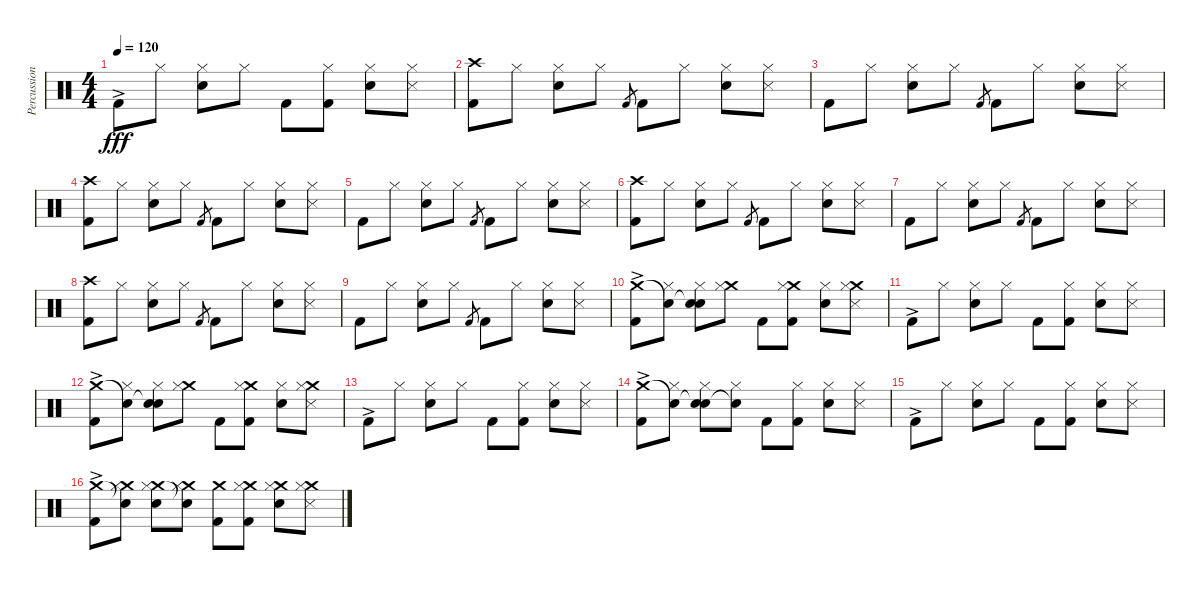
\track ("Percussion" "Percussion") {instrument percussion}
\staff {score}
\articulation defaults
\ts (4 4)
\tempo 120
\clef neutral
\ks c "Kick (hit) 2"{ac}.8{dy fff} "Hi-Hat (closed)".8
("Hi-Hat (closed)" "Snare (hit) 2").8 "Hi-Hat (closed)".8 "Kick (hit) 2".8 ("Hi-Hat (closed)" "Kick (hit) 2").8 ("Hi-Hat (closed)" "Snare (hit) 2").8 ("Hi-Hat (closed)" "Snare (side stick) 3").8 |
("Crash high (hit)" "Kick (hit) 2").8 "Hi-Hat (closed)".8 ("Hi-Hat (closed)" "Snare (hit) 2").8 "Hi-Hat (closed)".8 "Kick (hit) 2".8{gr} "Kick (hit) 2".8 "Hi-Hat (closed)".8 ("Hi-Hat (closed)" "Snare (hit) 2").8 ("Hi-Hat (closed)" "Snare (side stick) 3").8 |
"Kick (hit) 2".8 "Hi-Hat (closed)".8 ("Hi-Hat (closed)" "Snare (hit) 2").8 "Hi-Hat (closed)".8 "Kick (hit) 2".8{gr} "Kick (hit) 2".8 "Hi-Hat (closed)".8 ("Hi-Hat (closed)" "Snare (hit) 2").8 ("Hi-Hat (closed)" "Snare (side stick) 3").8 |
("Crash high (hit)" "Kick (hit) 2").8 "Hi-Hat (closed)".8 ("Hi-Hat (closed)" "Snare (hit) 2").8 "Hi-Hat (closed)".8 "Kick (hit) 2".8{gr} "Kick (hit) 2".8 "Hi-Hat (closed)".8 ("Hi-Hat (closed)" "Snare (hit) 2").8 ("Hi-Hat (closed)" "Snare (side stick) 3").8 |
"Kick (hit) 2".8 "Hi-Hat (closed)".8 ("Hi-Hat (closed)" "Snare (hit) 2").8 "Hi-Hat (closed)".8 "Kick (hit) 2".8{gr} "Kick (hit) 2".8 "Hi-Hat (closed)".8 ("Hi-Hat (closed)" "Snare (hit) 2").8 ("Hi-Hat (closed)" "Snare (side stick) 3").8 |
("Crash high (hit)" "Kick (hit) 2").8 "Hi-Hat (closed)".8 ("Hi-Hat (closed)" "Snare (hit) 2").8 "Hi-Hat (closed)".8 "Kick (hit) 2".8{gr} "Kick (hit) 2".8 "Hi-Hat (closed)".8 ("Hi-Hat (closed)" "Snare (hit) 2").8 ("Hi-Hat (closed)" "Snare (side stick) 3").8 |
"Kick (hit) 2".8 "Hi-Hat (closed)".8 ("Hi-Hat (closed)" "Snare (hit) 2").8 "Hi-Hat (closed)".8 "Kick (hit) 2".8{gr} "Kick (hit) 2".8 "Hi-Hat (closed)".8 ("Hi-Hat (closed)" "Snare (hit) 2").8 ("Hi-Hat (closed)" "Snare (side stick) 3").8 |
("Crash high (hit)" "Kick (hit) 2").8 "Hi-Hat (closed)".8 ("Hi-Hat (closed)" "Snare (hit) 2").8 "Hi-Hat (closed)".8 "Kick (hit) 2".8{gr} "Kick (hit) 2".8 "Hi-Hat (closed)".8 ("Hi-Hat (closed)" "Snare (hit) 2").8 ("Hi-Hat (closed)" "Snare (side stick) 3").8 |
"Kick (hit) 2".8 "Hi-Hat (closed)".8 ("Hi-Hat (closed)" "Snare (hit) 2").8 "Hi-Hat (closed)".8 "Kick (hit) 2".8{gr} "Kick (hit) 2".8 "Hi-Hat (closed)".8 ("Hi-Hat (closed)" "Snare (hit) 2").8 ("Hi-Hat (closed)" "Snare (side stick) 3").8 |
("Crash medium (hit)" "Kick (hit) 2"{ac}).8 ("Snare (hit)"{t} "Hi-Hat (closed)").8 ("Snare (hit)"{t} "Hi-Hat (closed)" "Snare (hit) 2").8 ("Crash medium (hit)" "Hi-Hat (closed)").8 "Kick (hit) 2".8 ("Crash medium (hit)" "Hi-Hat (closed)" "Kick (hit) 2").8 ("Hi-Hat (closed)" "Snare (hit) 2").8 ("Crash medium (hit)" "Hi-Hat (closed)" "Snare (side stick) 3").8 |
"Kick (hit) 2"{ac}.8 "Hi-Hat (closed)".8 ("Hi-Hat (closed)" "Snare (hit) 2").8 "Hi-Hat (closed)".8 "Kick (hit) 2".8 ("Hi-Hat (closed)" "Kick (hit) 2").8 ("Hi-Hat (closed)" "Snare (hit) 2").8 ("Hi-Hat (closed)" "Snare (side stick) 3").8 |
("Crash medium (hit)" "Kick (hit) 2"{ac}).8 ("Snare (hit)"{t} "Hi-Hat (closed)").8 ("Snare (hit)"{t} "Hi-Hat (closed)" "Snare (hit) 2").8 ("Crash medium (hit)" "Hi-Hat (closed)").8 "Kick (hit) 2".8 ("Crash medium (hit)" "Hi-Hat (closed)" "Kick (hit) 2").8 ("Hi-Hat (closed)" "Snare (hit) 2").8 ("Crash medium (hit)" "Hi-Hat (closed)" "Snare (side stick) 3").8 |
"Kick (hit) 2"{ac}.8 "Hi-Hat (closed)".8 ("Hi-Hat (closed)" "Snare (hit) 2").8 "Hi-Hat (closed)".8 "Kick (hit) 2".8 ("Hi-Hat (closed)" "Kick (hit) 2").8 ("Hi-Hat (closed)" "Snare (hit) 2").8 ("Hi-Hat (closed)" "Snare (side stick) 3").8 |
("Crash medium (hit)" "Kick (hit) 2"{ac}).8 ("Snare (hit)"{t} "Hi-Hat (closed)").8 ("Snare (hit)"{t} "Hi-Hat (closed)" "Snare (hit) 2").8 ("Snare (hit)"{t} "Hi-Hat (closed)").8 "Kick (hit) 2".8 ("Hi-Hat (closed)" "Kick (hit) 2").8 ("Hi-Hat (closed)" "Snare (hit) 2").8 ("Hi-Hat (closed)" "Snare (side stick) 3").8 |
"Kick (hit) 2"{ac}.8 "Hi-Hat (closed)".8 ("Hi-Hat (closed)" "Snare (hit) 2").8 "Hi-Hat (closed)".8 "Kick (hit) 2".8 ("Hi-Hat (closed)" "Kick (hit) 2").8 ("Hi-Hat (closed)" "Snare (hit) 2").8 ("Hi-Hat (closed)" "Snare (side stick) 3").8 |
("Crash medium (hit)" "Kick (hit) 2"{ac}).8 ("Snare (hit)"{t} "Crash medium (hit)" "Hi-Hat (closed)").8 ("Crash medium (hit)" "Hi-Hat (closed)" "Snare (hit) 2").8 ("Snare (hit)"{t} "Crash medium (hit)" "Hi-Hat (closed)").8 ("Crash medium (hit)" "Kick (hit) 2").8 ("Crash medium (hit)" "Hi-Hat (closed)" "Kick (hit) 2").8 ("Crash medium (hit)" "Hi-Hat (closed)" "Snare (hit) 2").8 ("Crash medium (hit)" "Hi-Hat (closed)" "Snare (side stick) 3").8
